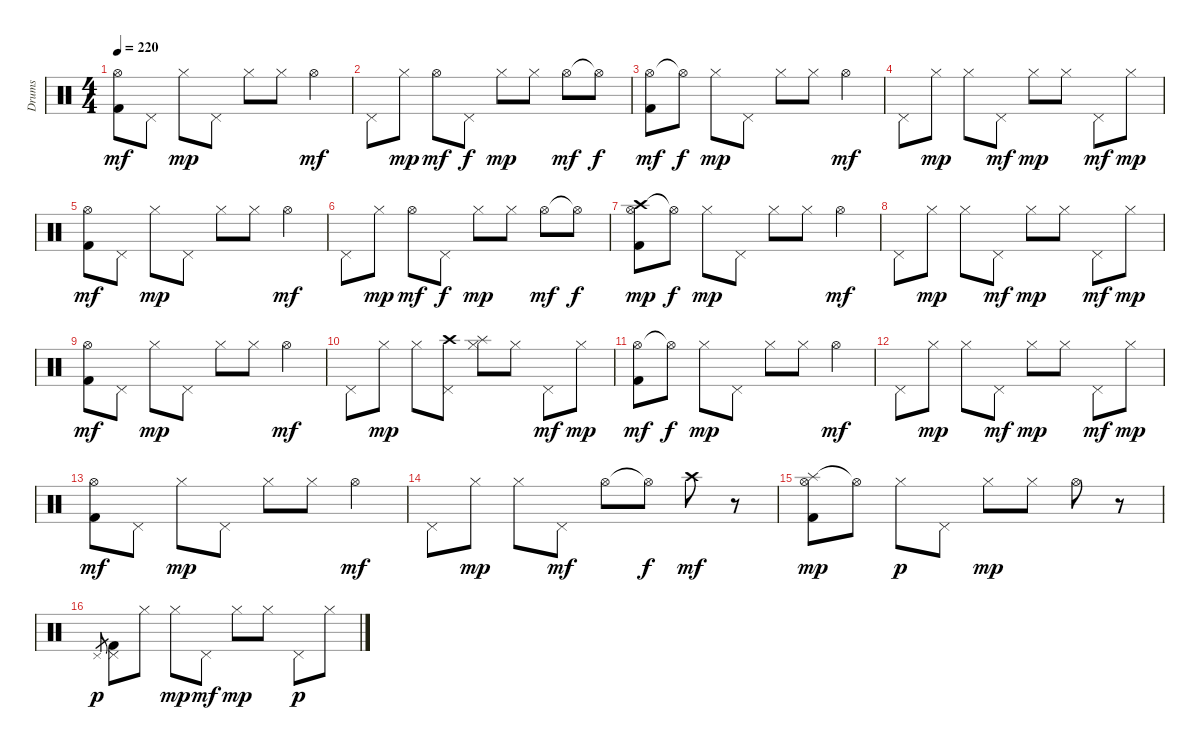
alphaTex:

\bracketExtendMode groupsimilarinstruments
\otherSystemsTrackNameOrientation horizontal
\track ("Drumkit" "Drums") {instrument percussion}
\staff {score}
\articulation defaults
\ts (4 4)
\tempo 220
\clef neutral
\ks c
("Hi-Hat (open)" "Kick (hit) 2").8{dy mf beam Down} "Pedal Hi-Hat (hit)".8{beam Down} "Hi-Hat (closed)".8{dy mp beam Down} "Pedal Hi-Hat (hit)".8{beam Down} "Hi-Hat (closed)".8{beam Down} "Hi-Hat (closed)".8{beam Down} "Hi-Hat (open)".4{dy mf beam Down} |
"Pedal Hi-Hat (hit)".8{beam Down} "Hi-Hat (closed)".8{dy mp beam Down} "Hi-Hat (open)".8{dy mf beam Down} "Pedal Hi-Hat (hit)".8{dy f beam Down} "Hi-Hat (closed)".8{dy mp beam Down} "Hi-Hat (closed)".8{beam Down} "Hi-Hat (open)".8{dy mf beam Down} "Hi-Hat (open)"{t}.8{dy f beam Down} |
("Hi-Hat (open)" "Kick (hit) 2").8{dy mf beam Down} "Hi-Hat (open)"{t}.8{dy f beam Down} "Hi-Hat (closed)".8{dy mp beam Down} "Pedal Hi-Hat (hit)".8{beam Down} "Hi-Hat (closed)".8{beam Down} "Hi-Hat (closed)".8{beam Down} "Hi-Hat (open)".4{dy mf beam Down} |
"Pedal Hi-Hat (hit)".8{beam Down} "Hi-Hat (closed)".8{dy mp beam Down} "Hi-Hat (closed)".8{beam Down} "Pedal Hi-Hat (hit)".8{dy mf beam Down} "Hi-Hat (closed)".8{dy mp beam Down} "Hi-Hat (closed)".8{beam Down} "Pedal Hi-Hat (hit)".8{dy mf beam Down} "Hi-Hat (closed)".8{dy mp beam Down} |
("Hi-Hat (open)" "Kick (hit) 2").8{dy mf beam Down} "Pedal Hi-Hat (hit)".8{beam Down} "Hi-Hat (closed)".8{dy mp beam Down} "Pedal Hi-Hat (hit)".8{beam Down} "Hi-Hat (closed)".8{beam Down} "Hi-Hat (closed)".8{beam Down} "Hi-Hat (open)".4{dy mf beam Down} |
"Pedal Hi-Hat (hit)".8{beam Down} "Hi-Hat (closed)".8{dy mp beam Down} "Hi-Hat (open)".8{dy mf beam Down} "Pedal Hi-Hat (hit)".8{dy f beam Down} "Hi-Hat (closed)".8{dy mp beam Down} "Hi-Hat (closed)".8{beam Down} "Hi-Hat (open)".8{dy mf beam Down} "Hi-Hat (open)"{t}.8{dy f beam Down} |
("Crash high (hit)" "Hi-Hat (open)" "Kick (hit) 2").8{dy mp beam Down} "Hi-Hat (open)"{t}.8{dy f beam Down} "Hi-Hat (closed)".8{dy mp beam Down} "Pedal Hi-Hat (hit)".8{beam Down} "Hi-Hat (closed)".8{beam Down} "Hi-Hat (closed)".8{beam Down} "Hi-Hat (open)".4{dy mf beam Down} |
"Pedal Hi-Hat (hit)".8{beam Down} "Hi-Hat (closed)".8{dy mp beam Down} "Hi-Hat (closed)".8{beam Down} "Pedal Hi-Hat (hit)".8{dy mf beam Down} "Hi-Hat (closed)".8{dy mp beam Down} "Hi-Hat (closed)".8{beam Down} "Pedal Hi-Hat (hit)".8{dy mf beam Down} "Hi-Hat (closed)".8{dy mp beam Down} |
("Hi-Hat (open)" "Kick (hit) 2").8{dy mf beam Down} "Pedal Hi-Hat (hit)".8{beam Down} "Hi-Hat (closed)".8{dy mp beam Down} "Pedal Hi-Hat (hit)".8{beam Down} "Hi-Hat (closed)".8{beam Down} "Hi-Hat (closed)".8{beam Down} "Hi-Hat (open)".4{dy mf beam Down} |
"Pedal Hi-Hat (hit)".8{beam Down} "Hi-Hat (closed)".8{dy mp beam Down} "Hi-Hat (closed)".8{beam Down} ("Crash high (hit)" "Pedal Hi-Hat (hit)").8{beam Down} ("Splash (hit)" "Hi-Hat (closed)").8{beam Down} "Hi-Hat (closed)".8{beam Down} "Pedal Hi-Hat (hit)".8{dy mf beam Down} "Hi-Hat (closed)".8{dy mp beam Down} |
("Hi-Hat (open)" "Kick (hit) 2").8{dy mf beam Down} "Hi-Hat (open)"{t}.8{dy f beam Down} "Hi-Hat (closed)".8{dy mp beam Down} "Pedal Hi-Hat (hit)".8{beam Down} "Hi-Hat (closed)".8{beam Down} "Hi-Hat (closed)".8{beam Down} "Hi-Hat (open)".4{dy mf beam Down} |
"Pedal Hi-Hat (hit)".8{beam Down} "Hi-Hat (closed)".8{dy mp beam Down} "Hi-Hat (closed)".8{beam Down} "Pedal Hi-Hat (hit)".8{dy mf beam Down} "Hi-Hat (closed)".8{dy mp beam Down} "Hi-Hat (closed)".8{beam Down} "Pedal Hi-Hat (hit)".8{dy mf beam Down} "Hi-Hat (closed)".8{dy mp beam Down} |
("Hi-Hat (open)" "Kick (hit) 2").8{dy mf beam Down} "Pedal Hi-Hat (hit)".8{beam Down} "Hi-Hat (closed)".8{dy mp beam Down} "Pedal Hi-Hat (hit)".8{beam Down} "Hi-Hat (closed)".8{beam Down} "Hi-Hat (closed)".8{beam Down} "Hi-Hat (open)".4{dy mf beam Down} |
"Pedal Hi-Hat (hit)".8{beam Down} "Hi-Hat (closed)".8{dy mp beam Down} "Hi-Hat (closed)".8{beam Down} "Pedal Hi-Hat (hit)".8{dy mf beam Down} "Hi-Hat (open)".8{beam Down} "Hi-Hat (open)"{t}.8{dy f beam Down} "Crash high (hit)".8{dy mf beam Down} r.8{beam Down} |
("Splash (hit)" "Hi-Hat (open)" "Kick (hit) 2").8{dy mp beam Down} "Hi-Hat (open)"{t}.8{beam Down} "Hi-Hat (closed)".8{dy p beam Down} "Pedal Hi-Hat (hit)".8{beam Down} "Hi-Hat (closed)".8{dy mp beam Down} "Hi-Hat (closed)".8{beam Down} "Hi-Hat (open)".8{beam Down} r.8{beam Down} |
"Pedal Hi-Hat (hit)".8{gr dy p beam Up} ("Pedal Hi-Hat (hit)" "Kick (hit) 2").8{beam Down} "Hi-Hat (closed)".8{beam Down} "Hi-Hat (closed)".8{dy mp beam Down} "Pedal Hi-Hat (hit)".8{dy mf beam Down} "Hi-Hat (closed)".8{dy mp beam Down} "Hi-Hat (closed)".8{beam Down} "Pedal Hi-Hat (hit)".8{dy p beam Down} "Hi-Hat (closed)".8{beam Down}
